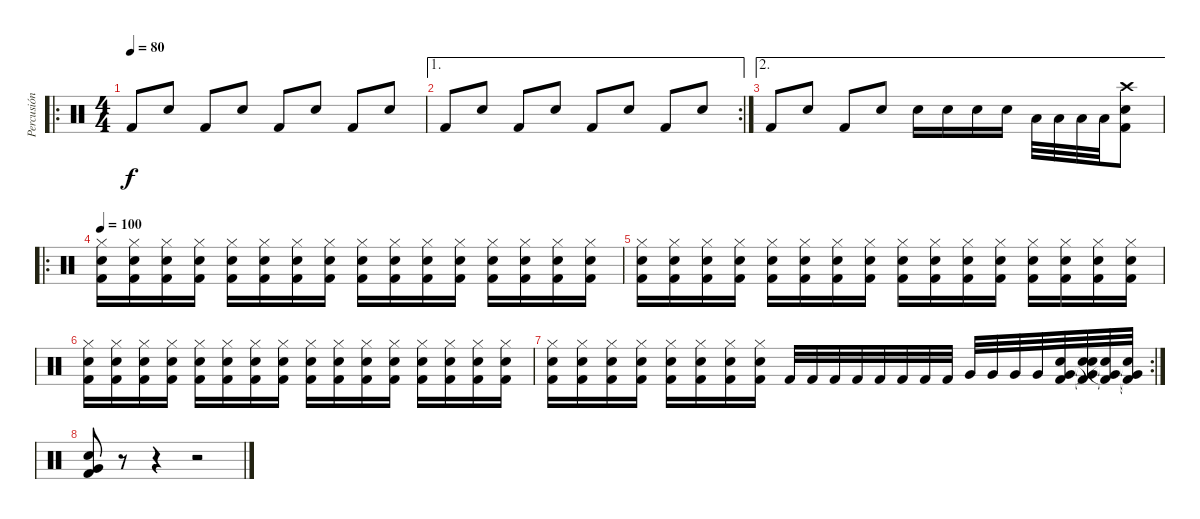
\track ("Percusión" "Percusión") {instrument percussion}
\staff {score}
\articulation defaults
\ro
\ts (4 4)
\tempo 90
\tempo 100
\tempo 80
\clef neutral
\ks c "Kick (hit) 2".8{dy f} "Snare (hit) 2".8 "Kick (hit) 2".8 "Snare (hit) 2".8 "Kick (hit) 2".8 "Snare (hit) 2".8 "Kick (hit) 2".8 "Snare (hit) 2".8
|
\ae 1
\rc 2 "Kick (hit) 2".8 "Snare (hit) 2".8 "Kick (hit) 2".8 "Snare (hit) 2".8 "Kick (hit) 2".8 "Snare (hit) 2".8 "Kick (hit) 2".8 "Snare (hit) 2".8
|
\ae 2 "Kick (hit) 2".8 "Snare (hit) 2".8 "Kick (hit) 2".8 "Snare (hit) 2".8 "Snare (hit) 2".16 "Snare (hit) 2".16 "Snare (hit) 2".16 "Snare (hit) 2".16 "Low Tom (hit)".32 "Low Tom (hit)".32 "Low Tom (hit)".32 "Low Tom (hit)".32
("Crash high (hit)" "Snare (hit) 2" "Kick (hit) 2").8 |
\ro
\tempo 100
("Hi-Hat (closed)" "Snare (hit) 2" "Kick (hit) 2").16 ("Hi-Hat (closed)" "Snare (hit) 2" "Kick (hit) 2").16 ("Hi-Hat (closed)" "Snare (hit) 2" "Kick (hit) 2").16 ("Hi-Hat (closed)" "Snare (hit) 2" "Kick (hit) 2").16 ("Hi-Hat (closed)" "Snare (hit) 2" "Kick (hit) 2").16 ("Hi-Hat (closed)" "Snare (hit) 2" "Kick (hit) 2").16 ("Hi-Hat (closed)" "Snare (hit) 2" "Kick (hit) 2").16 ("Hi-Hat (closed)" "Snare (hit) 2" "Kick (hit) 2").16 ("Hi-Hat (closed)" "Snare (hit) 2" "Kick (hit) 2").16 ("Hi-Hat (closed)" "Snare (hit) 2" "Kick (hit) 2").16 ("Hi-Hat (closed)" "Snare (hit) 2" "Kick (hit) 2").16 ("Hi-Hat (closed)" "Snare (hit) 2" "Kick (hit) 2").16 ("Hi-Hat (closed)" "Snare (hit) 2" "Kick (hit) 2").16 ("Hi-Hat (closed)" "Snare (hit) 2" "Kick (hit) 2").16 ("Hi-Hat (closed)" "Snare (hit) 2" "Kick (hit) 2").16 ("Hi-Hat (closed)" "Snare (hit) 2" "Kick (hit) 2").16 |
("Hi-Hat (closed)" "Snare (hit) 2" "Kick (hit) 2").16 ("Hi-Hat (closed)" "Snare (hit) 2" "Kick (hit) 2").16 ("Hi-Hat (closed)" "Snare (hit) 2" "Kick (hit) 2").16 ("Hi-Hat (closed)" "Snare (hit) 2" "Kick (hit) 2").16 ("Hi-Hat (closed)" "Snare (hit) 2" "Kick (hit) 2").16 ("Hi-Hat (closed)" "Snare (hit) 2" "Kick (hit) 2").16 ("Hi-Hat (closed)" "Snare (hit) 2" "Kick (hit) 2").16 ("Hi-Hat (closed)" "Snare (hit) 2" "Kick (hit) 2").16 ("Hi-Hat (closed)" "Snare (hit) 2" "Kick (hit) 2").16 ("Hi-Hat (closed)" "Snare (hit) 2" "Kick (hit) 2").16 ("Hi-Hat (closed)" "Snare (hit) 2" "Kick (hit) 2").16 ("Hi-Hat (closed)" "Snare (hit) 2" "Kick (hit) 2").16 ("Hi-Hat (closed)" "Snare (hit) 2" "Kick (hit) 2").16 ("Hi-Hat (closed)" "Snare (hit) 2" "Kick (hit) 2").16 ("Hi-Hat (closed)" "Snare (hit) 2" "Kick (hit) 2").16 ("Hi-Hat (closed)" "Snare (hit) 2" "Kick (hit) 2").16 |
("Hi-Hat (closed)" "Snare (hit) 2" "Kick (hit) 2").16 ("Hi-Hat (closed)" "Snare (hit) 2" "Kick (hit) 2").16 ("Hi-Hat (closed)" "Snare (hit) 2" "Kick (hit) 2").16 ("Hi-Hat (closed)" "Snare (hit) 2" "Kick (hit) 2").16 ("Hi-Hat (closed)" "Snare (hit) 2" "Kick (hit) 2").16 ("Hi-Hat (closed)" "Snare (hit) 2" "Kick (hit) 2").16 ("Hi-Hat (closed)" "Snare (hit) 2" "Kick (hit) 2").16 ("Hi-Hat (closed)" "Snare (hit) 2" "Kick (hit) 2").16 ("Hi-Hat (closed)" "Snare (hit) 2" "Kick (hit) 2").16 ("Hi-Hat (closed)" "Snare (hit) 2" "Kick (hit) 2").16 ("Hi-Hat (closed)" "Snare (hit) 2" "Kick (hit) 2").16 ("Hi-Hat (closed)" "Snare (hit) 2" "Kick (hit) 2").16 ("Hi-Hat (closed)" "Snare (hit) 2" "Kick (hit) 2").16 ("Hi-Hat (closed)" "Snare (hit) 2" "Kick (hit) 2").16 ("Hi-Hat (closed)" "Snare (hit) 2" "Kick (hit) 2").16 ("Hi-Hat (closed)" "Snare (hit) 2" "Kick (hit) 2").16 |
\rc 2
("Hi-Hat (closed)" "Snare (hit) 2" "Kick (hit) 2").16 ("Hi-Hat (closed)" "Snare (hit) 2" "Kick (hit) 2").16 ("Hi-Hat (closed)" "Snare (hit) 2" "Kick (hit) 2").16 ("Hi-Hat (closed)" "Snare (hit) 2" "Kick (hit) 2").16 ("Hi-Hat (closed)" "Snare (hit) 2" "Kick (hit) 2").16 ("Hi-Hat (closed)" "Snare (hit) 2" "Kick (hit) 2").16 ("Hi-Hat (closed)" "Snare (hit) 2" "Kick (hit) 2").16 ("Hi-Hat (closed)" "Snare (hit) 2" "Kick (hit) 2").16 "Kick (hit) 2".32 "Kick (hit) 2".32 "Kick (hit) 2".32 "Kick (hit) 2".32 "Kick (hit) 2".32 "Kick (hit) 2".32 "Kick (hit) 2".32 "Kick (hit) 2".32 "Very Low Tom (hit)".32 "Very Low Tom (hit)".32 "Very Low Tom (hit)".32 "Very Low Tom (hit)".32 ("Very Low Tom (hit)" "Snare (hit) 2" "Kick (hit) 2").32 ("Very Low Tom (hit)"{t} "Snare (hit) 2"{t} "Snare (hit)"{t} "Kick (hit) 2").32 ("Very Low Tom (hit)"{t} "Snare (hit) 2"{t} "Kick (hit) 2"{t}).32 ("Very Low Tom (hit)"{t} "Snare (hit) 2"{t} "Kick (hit) 2"{t}).32 |
("Very Low Tom (hit)" "Snare (hit) 2" "Kick (hit) 2").8 r.8 r.4 r.2
